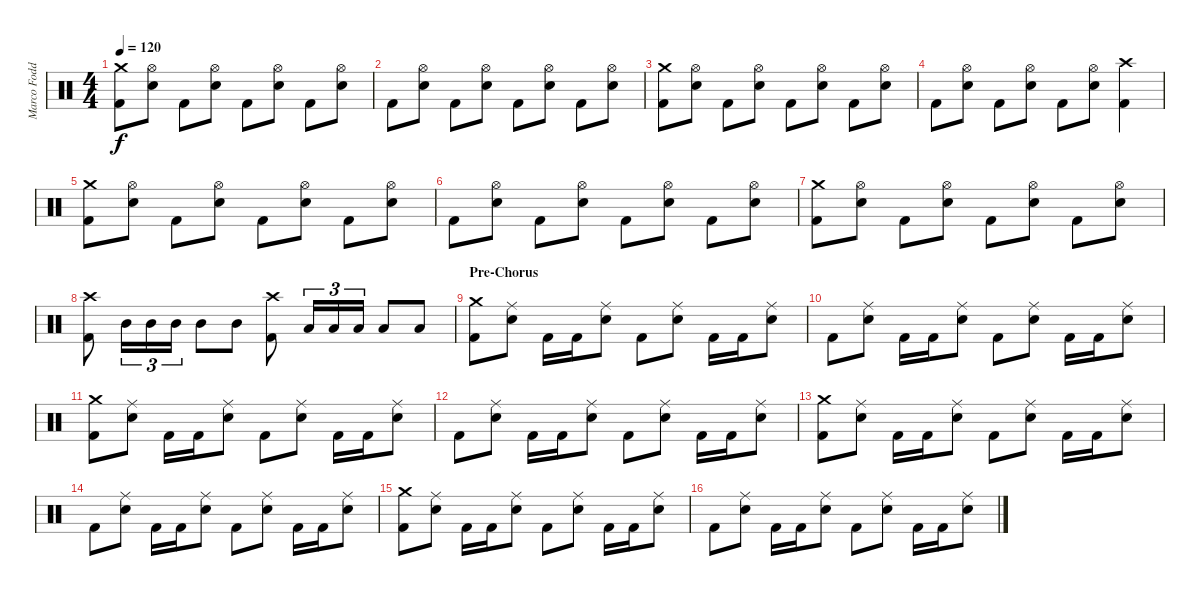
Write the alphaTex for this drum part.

\track ("Marco Foddis " "Marco Fodd") {instrument percussion}
\staff {score}
\articulation defaults
\ts (4 4)
\tempo 120
\clef neutral
\ks c
("Crash medium (hit)" "Kick (hit) 2").8{dy f} ("Hi-Hat (open)" "Electric Snare (hit)").8 "Kick (hit) 2".8 ("Hi-Hat (open)" "Electric Snare (hit)").8 "Kick (hit) 2".8 ("Hi-Hat (open)" "Electric Snare (hit)").8 "Kick (hit) 2".8 ("Hi-Hat (open)" "Electric Snare (hit)").8 |
"Kick (hit) 2".8 ("Hi-Hat (open)" "Electric Snare (hit)").8 "Kick (hit) 2".8 ("Hi-Hat (open)" "Electric Snare (hit)").8 "Kick (hit) 2".8 ("Hi-Hat (open)" "Electric Snare (hit)").8 "Kick (hit) 2".8 ("Hi-Hat (open)" "Electric Snare (hit)").8 |
("Crash medium (hit)" "Kick (hit) 2").8 ("Hi-Hat (open)" "Electric Snare (hit)").8 "Kick (hit) 2".8 ("Hi-Hat (open)" "Electric Snare (hit)").8 "Kick (hit) 2".8 ("Hi-Hat (open)" "Electric Snare (hit)").8 "Kick (hit) 2".8 ("Hi-Hat (open)" "Electric Snare (hit)").8 |
"Kick (hit) 2".8 ("Hi-Hat (open)" "Electric Snare (hit)").8 "Kick (hit) 2".8 ("Hi-Hat (open)" "Electric Snare (hit)").8 "Kick (hit) 2".8 ("Hi-Hat (open)" "Electric Snare (hit)").8 ("Crash high (hit)" "Kick (hit) 2").4 |
("Crash medium (hit)" "Kick (hit) 2").8 ("Hi-Hat (open)" "Electric Snare (hit)").8 "Kick (hit) 2".8 ("Hi-Hat (open)" "Electric Snare (hit)").8 "Kick (hit) 2".8 ("Hi-Hat (open)" "Electric Snare (hit)").8 "Kick (hit) 2".8 ("Hi-Hat (open)" "Electric Snare (hit)").8 |
"Kick (hit) 2".8 ("Hi-Hat (open)" "Electric Snare (hit)").8 "Kick (hit) 2".8 ("Hi-Hat (open)" "Electric Snare (hit)").8 "Kick (hit) 2".8 ("Hi-Hat (open)" "Electric Snare (hit)").8 "Kick (hit) 2".8 ("Hi-Hat (open)" "Electric Snare (hit)").8 |
("Crash medium (hit)" "Kick (hit) 2").8 ("Hi-Hat (open)" "Electric Snare (hit)").8 "Kick (hit) 2".8 ("Hi-Hat (open)" "Electric Snare (hit)").8 "Kick (hit) 2".8 ("Hi-Hat (open)" "Electric Snare (hit)").8 "Kick (hit) 2".8 ("Hi-Hat (open)" "Electric Snare (hit)").8 |
("Crash high (hit)" "Kick (hit) 2").8 "Mid Tom (hit)".16{tu (3 2)} "Mid Tom (hit)".16{tu (3 2)} "Mid Tom (hit)".16{tu (3 2)} "Mid Tom (hit)".8 "Mid Tom (hit)".8 ("Crash high (hit)" "Kick (hit) 2").8 "Low Tom (hit)".16{tu (3 2)} "Low Tom (hit)".16{tu (3 2)} "Low Tom (hit)".16{tu (3 2)} "Low Tom (hit)".8 "Low Tom (hit)".8 |
\section ("" "Pre-Chorus")
("Crash medium (hit)" "Kick (hit) 2").8 ("Ride (middle)" "Electric Snare (hit)").8 "Kick (hit) 2".16 "Kick (hit) 2".16 ("Ride (middle)" "Electric Snare (hit)").8 "Kick (hit) 2".8 ("Ride (middle)" "Electric Snare (hit)").8 "Kick (hit) 2".16 "Kick (hit) 2".16 ("Ride (middle)" "Electric Snare (hit)").8 |
"Kick (hit) 2".8 ("Ride (middle)" "Electric Snare (hit)").8 "Kick (hit) 2".16 "Kick (hit) 2".16 ("Ride (middle)" "Electric Snare (hit)").8 "Kick (hit) 2".8 ("Ride (middle)" "Electric Snare (hit)").8 "Kick (hit) 2".16 "Kick (hit) 2".16 ("Ride (middle)" "Electric Snare (hit)").8 |
("Crash medium (hit)" "Kick (hit) 2").8 ("Ride (middle)" "Electric Snare (hit)").8 "Kick (hit) 2".16 "Kick (hit) 2".16 ("Ride (middle)" "Electric Snare (hit)").8 "Kick (hit) 2".8 ("Ride (middle)" "Electric Snare (hit)").8 "Kick (hit) 2".16 "Kick (hit) 2".16 ("Ride (middle)" "Electric Snare (hit)").8 |
"Kick (hit) 2".8 ("Ride (middle)" "Electric Snare (hit)").8 "Kick (hit) 2".16 "Kick (hit) 2".16 ("Ride (middle)" "Electric Snare (hit)").8 "Kick (hit) 2".8 ("Ride (middle)" "Electric Snare (hit)").8 "Kick (hit) 2".16 "Kick (hit) 2".16 ("Ride (middle)" "Electric Snare (hit)").8 |
("Crash medium (hit)" "Kick (hit) 2").8 ("Ride (middle)" "Electric Snare (hit)").8 "Kick (hit) 2".16 "Kick (hit) 2".16 ("Ride (middle)" "Electric Snare (hit)").8 "Kick (hit) 2".8 ("Ride (middle)" "Electric Snare (hit)").8 "Kick (hit) 2".16 "Kick (hit) 2".16 ("Ride (middle)" "Electric Snare (hit)").8 |
"Kick (hit) 2".8 ("Ride (middle)" "Electric Snare (hit)").8 "Kick (hit) 2".16 "Kick (hit) 2".16 ("Ride (middle)" "Electric Snare (hit)").8 "Kick (hit) 2".8 ("Ride (middle)" "Electric Snare (hit)").8 "Kick (hit) 2".16 "Kick (hit) 2".16 ("Ride (middle)" "Electric Snare (hit)").8 |
("Crash medium (hit)" "Kick (hit) 2").8 ("Ride (middle)" "Electric Snare (hit)").8 "Kick (hit) 2".16 "Kick (hit) 2".16 ("Ride (middle)" "Electric Snare (hit)").8 "Kick (hit) 2".8 ("Ride (middle)" "Electric Snare (hit)").8 "Kick (hit) 2".16 "Kick (hit) 2".16 ("Ride (middle)" "Electric Snare (hit)").8 |
"Kick (hit) 2".8 ("Ride (middle)" "Electric Snare (hit)").8 "Kick (hit) 2".16 "Kick (hit) 2".16 ("Ride (middle)" "Electric Snare (hit)").8 "Kick (hit) 2".8 ("Ride (middle)" "Electric Snare (hit)").8 "Kick (hit) 2".16 "Kick (hit) 2".16 ("Ride (middle)" "Electric Snare (hit)").8
